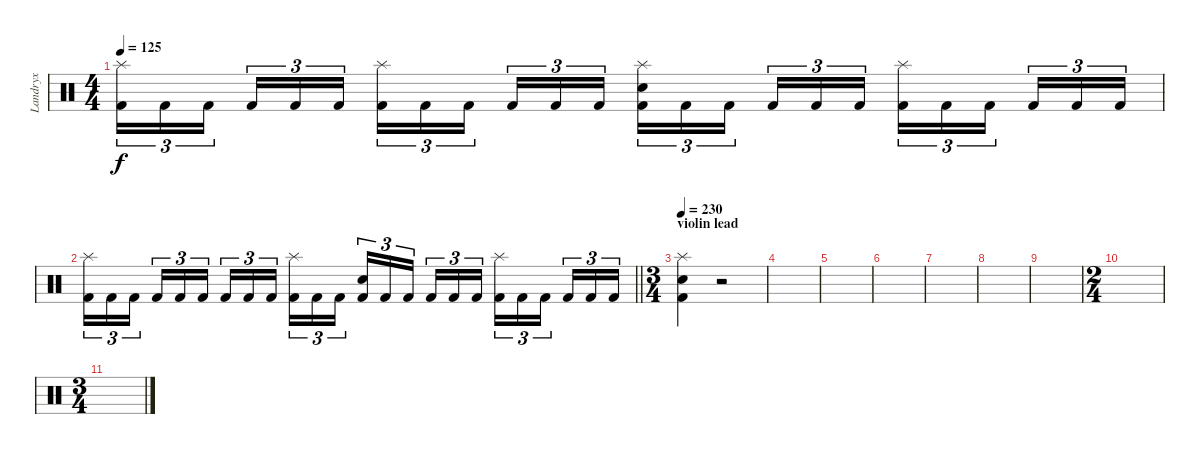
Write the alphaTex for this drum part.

\track ("Landryx" "Landryx") {instrument percussion}
\staff {score}
\articulation defaults
\ts (4 4)
\tempo 125
\clef neutral
\ks c
("Splash (hit)" "Kick (hit) 2").16{tu (3 2) dy f} "Kick (hit) 2".16{tu (3 2)} "Kick (hit) 2".16{tu (3 2) beam splitsecondary} "Kick (hit) 2".16{tu (3 2)} "Kick (hit) 2".16{tu (3 2)} "Kick (hit) 2".16{tu (3 2)} ("Splash (hit)" "Kick (hit) 2").16{tu (3 2)} "Kick (hit) 2".16{tu (3 2)} "Kick (hit) 2".16{tu (3 2) beam splitsecondary} "Kick (hit) 2".16{tu (3 2)} "Kick (hit) 2".16{tu (3 2)} "Kick (hit) 2".16{tu (3 2)} ("Splash (hit)" "Electric Snare (hit)" "Kick (hit) 2").16{tu (3 2)} "Kick (hit) 2".16{tu (3 2)} "Kick (hit) 2".16{tu (3 2) beam splitsecondary} "Kick (hit) 2".16{tu (3 2)} "Kick (hit) 2".16{tu (3 2)} "Kick (hit) 2".16{tu (3 2)} ("Splash (hit)" "Kick (hit) 2").16{tu (3 2)} "Kick (hit) 2".16{tu (3 2)} "Kick (hit) 2".16{tu (3 2) beam splitsecondary} "Kick (hit) 2".16{tu (3 2)} "Kick (hit) 2".16{tu (3 2)} "Kick (hit) 2".16{tu (3 2)} |
\barLineRight lightlight
("Splash (hit)" "Kick (hit) 2").16{tu (3 2)} "Kick (hit) 2".16{tu (3 2)} "Kick (hit) 2".16{tu (3 2) beam splitsecondary} "Kick (hit) 2".16{tu (3 2)} "Kick (hit) 2".16{tu (3 2)} "Kick (hit) 2".16{tu (3 2)} "Kick (hit) 2".16{tu (3 2)} "Kick (hit) 2".16{tu (3 2)} "Kick (hit) 2".16{tu (3 2) beam splitsecondary} ("Splash (hit)" "Kick (hit) 2").16{tu (3 2)} "Kick (hit) 2".16{tu (3 2)} "Kick (hit) 2".16{tu (3 2)} ("Electric Snare (hit)" "Kick (hit) 2").16{tu (3 2)} "Kick (hit) 2".16{tu (3 2)} "Kick (hit) 2".16{tu (3 2) beam splitsecondary} "Kick (hit) 2".16{tu (3 2)} "Kick (hit) 2".16{tu (3 2)} "Kick (hit) 2".16{tu (3 2)} ("Splash (hit)" "Kick (hit) 2").16{tu (3 2)} "Kick (hit) 2".16{tu (3 2)} "Kick (hit) 2".16{tu (3 2) beam splitsecondary} "Kick (hit) 2".16{tu (3 2)} "Kick (hit) 2".16{tu (3 2)} "Kick (hit) 2".16{tu (3 2)} |
\ts (3 4)
\section ("" "violin lead")
\tempo 230
("Splash (hit)" "Electric Snare (hit)" "Kick (hit) 2").4 r.2 |
|
|
|
|
|
|
\ts (2 4)
|
\ts (3 4)
